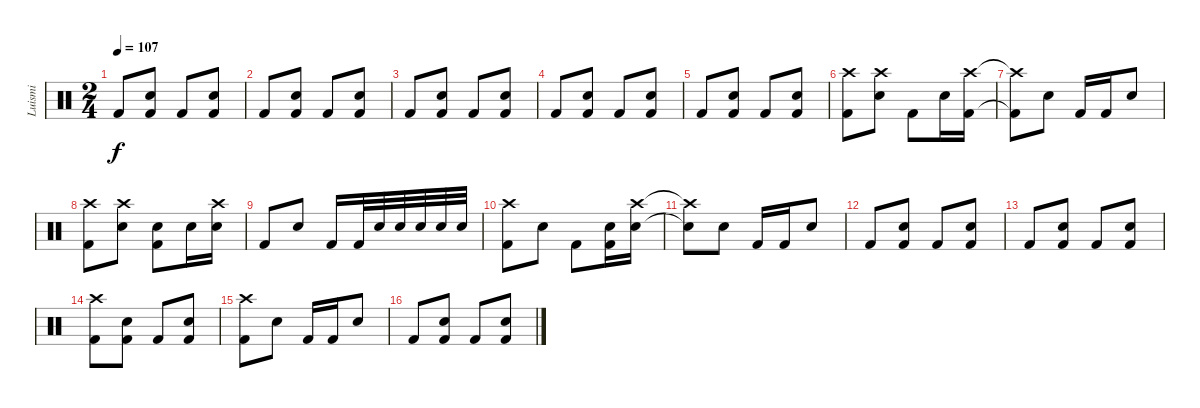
\track ("Luismi" "Luismi") {instrument percussion}
\staff {score}
\articulation defaults
\ts (2 4)
\tempo 107
\clef neutral
\ks c "Kick (hit) 2".8{dy f}
("Snare (hit) 2" "Kick (hit) 2").8 "Kick (hit) 2".8 ("Snare (hit) 2" "Kick (hit) 2").8 |
"Kick (hit) 2".8 ("Snare (hit) 2" "Kick (hit) 2").8 "Kick (hit) 2".8 ("Snare (hit) 2" "Kick (hit) 2").8 |
"Kick (hit) 2".8 ("Snare (hit) 2" "Kick (hit) 2").8 "Kick (hit) 2".8 ("Snare (hit) 2" "Kick (hit) 2").8 |
"Kick (hit) 2".8 ("Snare (hit) 2" "Kick (hit) 2").8 "Kick (hit) 2".8 ("Snare (hit) 2" "Kick (hit) 2").8 |
"Kick (hit) 2".8 ("Snare (hit) 2" "Kick (hit) 2").8 "Kick (hit) 2".8 ("Snare (hit) 2" "Kick (hit) 2").8 |
("Crash high (hit)" "Kick (hit) 2").8 ("Crash high (hit)" "Snare (hit) 2").8 "Kick (hit) 2".8 "Snare (hit) 2".16 ("Crash high (hit)" "Kick (hit) 2").16 |
("Crash high (hit)"{t} "Kick (hit) 2"{t}).8 "Snare (hit) 2".8 "Kick (hit) 2".16 "Kick (hit) 2".16 "Snare (hit) 2".8 |
("Crash high (hit)" "Kick (hit) 2").8 ("Crash high (hit)" "Snare (hit) 2").8 ("Snare (hit) 2" "Kick (hit) 2").8 "Snare (hit) 2".16 ("Crash high (hit)" "Snare (hit) 2").16 |
"Kick (hit) 2".8 "Snare (hit) 2".8 "Kick (hit) 2".16 "Kick (hit) 2".32 "Snare (hit) 2".32 "Electric Snare (hit)".32 "Electric Snare (hit)".32 "Snare (hit) 2".32 "Snare (hit) 2".32 |
("Crash high (hit)" "Kick (hit) 2").8 "Snare (hit) 2".8 "Kick (hit) 2".8 ("Snare (hit) 2" "Kick (hit) 2").16 ("Crash high (hit)" "Snare (hit) 2").16 |
("Crash high (hit)"{t} "Snare (hit)"{t}).8 "Snare (hit) 2".8 "Kick (hit) 2".16 "Kick (hit) 2".16 "Snare (hit) 2".8 |
"Kick (hit) 2".8 ("Snare (hit) 2" "Kick (hit) 2").8 "Kick (hit) 2".8 ("Snare (hit) 2" "Kick (hit) 2").8 |
"Kick (hit) 2".8 ("Snare (hit) 2" "Kick (hit) 2").8 "Kick (hit) 2".8 ("Snare (hit) 2" "Kick (hit) 2").8 |
("Crash high (hit)" "Kick (hit) 2").8 ("Snare (hit) 2" "Kick (hit) 2").8 "Kick (hit) 2".8 ("Snare (hit) 2" "Kick (hit) 2").8 |
("Crash high (hit)" "Kick (hit) 2").8 "Snare (hit) 2".8 "Kick (hit) 2".16 "Kick (hit) 2".16 "Snare (hit) 2".8 |
"Kick (hit) 2".8 ("Snare (hit) 2" "Kick (hit) 2").8 "Kick (hit) 2".8 ("Snare (hit) 2" "Kick (hit) 2").8
